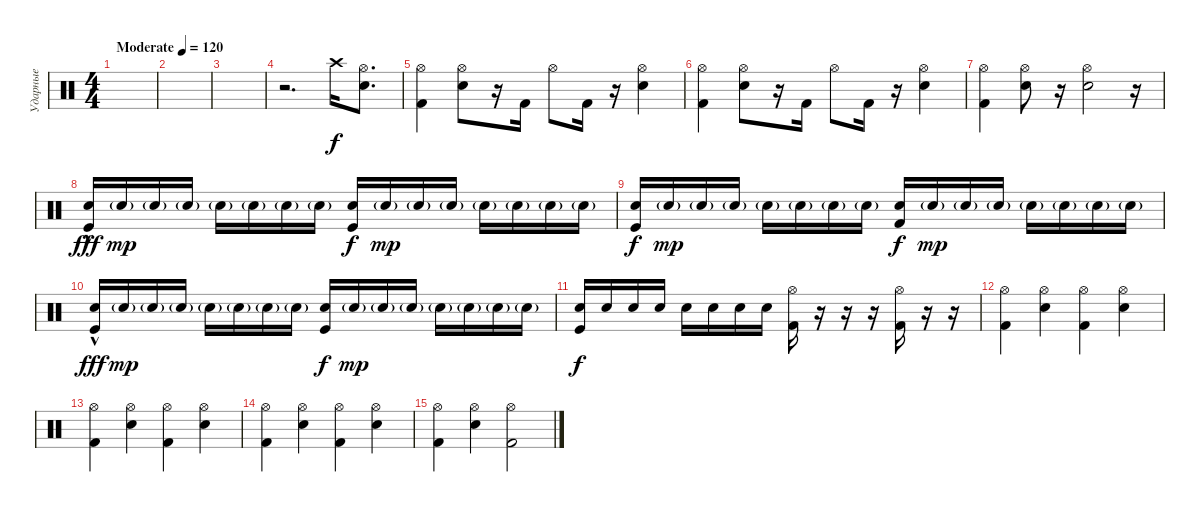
\track ("Ударные" "Ударные") {instrument percussion}
\staff {score}
\articulation defaults
\ts (4 4)
\tempo (120 "Moderate")
\clef neutral
\ks c
|
|
|
r.2{d} "Crash high (hit)".16 ("Hi-Hat (open)" "Electric Snare (hit)").8{d} |
("Kick (hit) 2" "Hi-Hat (open)").4 ("Electric Snare (hit)" "Hi-Hat (open)").8 r.16 "Kick (hit) 2".16 "Hi-Hat (open)".8 "Kick (hit) 2".16 r.16 ("Electric Snare (hit)" "Hi-Hat (open)").4 |
("Kick (hit) 2" "Hi-Hat (open)").4 ("Electric Snare (hit)" "Hi-Hat (open)").8 r.16 "Kick (hit) 2".16 "Hi-Hat (open)".8 "Kick (hit) 2".16 r.16 ("Electric Snare (hit)" "Hi-Hat (open)").4 |
("Kick (hit) 2" "Hi-Hat (open)").4 ("Electric Snare (hit)" "Hi-Hat (open)").8 r.16 ("Electric Snare (hit)" "Hi-Hat (open)").2 r.16 |
("Electric Snare (hit)"{hac} "Kick (hit)").16{dy fff} "Electric Snare (hit)"{g}.16{dy mp} "Electric Snare (hit)"{g}.16 "Electric Snare (hit)"{g}.16 "Electric Snare (hit)"{g}.16 "Electric Snare (hit)"{g}.16 "Electric Snare (hit)"{g}.16 "Electric Snare (hit)"{g}.16 ("Electric Snare (hit)" "Kick (hit)").16{dy f} "Electric Snare (hit)"{g}.16{dy mp} "Electric Snare (hit)"{g}.16 "Electric Snare (hit)"{g}.16 "Electric Snare (hit)"{g}.16 "Electric Snare (hit)"{g}.16 "Electric Snare (hit)"{g}.16 "Electric Snare (hit)"{g}.16 |
("Electric Snare (hit)" "Kick (hit)").16{dy f} "Electric Snare (hit)"{g}.16{dy mp} "Electric Snare (hit)"{g}.16 "Electric Snare (hit)"{g}.16 "Electric Snare (hit)"{g}.16 "Electric Snare (hit)"{g}.16 "Electric Snare (hit)"{g}.16 "Electric Snare (hit)"{g}.16 ("Electric Snare (hit)" "Kick (hit) 2").16{dy f} "Electric Snare (hit)"{g}.16{dy mp} "Electric Snare (hit)"{g}.16 "Electric Snare (hit)"{g}.16 "Electric Snare (hit)"{g}.16 "Electric Snare (hit)"{g}.16 "Electric Snare (hit)"{g}.16 "Electric Snare (hit)"{g}.16 |
("Electric Snare (hit)"{hac} "Kick (hit)").16{dy fff} "Electric Snare (hit)"{g}.16{dy mp} "Electric Snare (hit)"{g}.16 "Electric Snare (hit)"{g}.16 "Electric Snare (hit)"{g}.16 "Electric Snare (hit)"{g}.16 "Electric Snare (hit)"{g}.16 "Electric Snare (hit)"{g}.16 ("Electric Snare (hit)" "Kick (hit)").16{dy f} "Electric Snare (hit)"{g}.16{dy mp} "Electric Snare (hit)"{g}.16 "Electric Snare (hit)"{g}.16 "Electric Snare (hit)"{g}.16 "Electric Snare (hit)"{g}.16 "Electric Snare (hit)"{g}.16 "Electric Snare (hit)"{g}.16 |
("Electric Snare (hit)" "Kick (hit)").16{dy f} "Snare (hit) 2".16 "Snare (hit) 2".16 "Snare (hit) 2".16 "Snare (hit) 2".16 "Snare (hit) 2".16 "Snare (hit) 2".16 "Snare (hit) 2".16 ("Hi-Hat (open)" "Kick (hit) 2").16 r.16 r.16 r.16 ("Hi-Hat (open)" "Kick (hit) 2").16 r.16 r.16 |
("Kick (hit) 2" "Hi-Hat (open)").4 ("Electric Snare (hit)" "Hi-Hat (open)").4 ("Kick (hit) 2" "Hi-Hat (open)").4 ("Electric Snare (hit)" "Hi-Hat (open)").4 |
("Kick (hit) 2" "Hi-Hat (open)").4 ("Electric Snare (hit)" "Hi-Hat (open)").4 ("Kick (hit) 2" "Hi-Hat (open)").4 ("Electric Snare (hit)" "Hi-Hat (open)").4 |
("Kick (hit) 2" "Hi-Hat (open)").4 ("Electric Snare (hit)" "Hi-Hat (open)").4 ("Kick (hit) 2" "Hi-Hat (open)").4 ("Electric Snare (hit)" "Hi-Hat (open)").4 |
("Kick (hit) 2" "Hi-Hat (open)").4 ("Electric Snare (hit)" "Hi-Hat (open)").4 ("Kick (hit) 2" "Hi-Hat (open)").2
